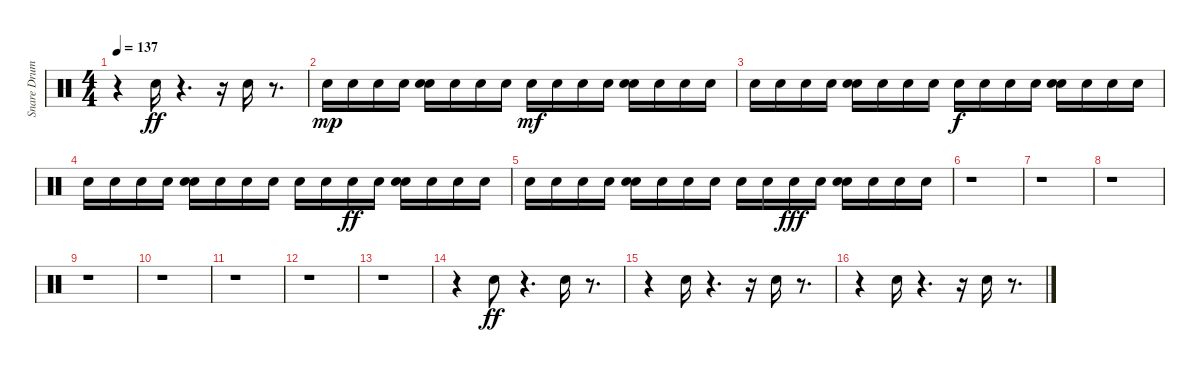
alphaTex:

\track ("Snare Drum" "Snare Drum") {instrument percussion}
\staff {score}
\articulation defaults
\ts (4 4)
\tempo 137
\clef neutral
\ks c
r.4{dy ff} "Electric Snare (hit)".16 r.4{d} r.16 "Electric Snare (hit)".16 r.8{d} |
"Electric Snare (hit)".16{dy mp} "Electric Snare (hit)".16 "Electric Snare (hit)".16 "Electric Snare (hit)".16 ("Electric Snare (hit)" "Electric Snare (hit)").16 "Electric Snare (hit)".16 "Electric Snare (hit)".16 "Electric Snare (hit)".16 "Electric Snare (hit)".16{dy mf} "Electric Snare (hit)".16 "Electric Snare (hit)".16 "Electric Snare (hit)".16 ("Electric Snare (hit)" "Electric Snare (hit)").16 "Electric Snare (hit)".16 "Electric Snare (hit)".16 "Electric Snare (hit)".16 |
"Electric Snare (hit)".16 "Electric Snare (hit)".16 "Electric Snare (hit)".16 "Electric Snare (hit)".16 ("Electric Snare (hit)" "Electric Snare (hit)").16 "Electric Snare (hit)".16 "Electric Snare (hit)".16 "Electric Snare (hit)".16 "Electric Snare (hit)".16{dy f} "Electric Snare (hit)".16 "Electric Snare (hit)".16 "Electric Snare (hit)".16 ("Electric Snare (hit)" "Electric Snare (hit)").16 "Electric Snare (hit)".16 "Electric Snare (hit)".16 "Electric Snare (hit)".16 |
"Electric Snare (hit)".16 "Electric Snare (hit)".16 "Electric Snare (hit)".16 "Electric Snare (hit)".16 ("Electric Snare (hit)" "Electric Snare (hit)").16 "Electric Snare (hit)".16 "Electric Snare (hit)".16 "Electric Snare (hit)".16 "Electric Snare (hit)".16 "Electric Snare (hit)".16 "Electric Snare (hit)".16{dy ff} "Electric Snare (hit)".16 ("Electric Snare (hit)" "Electric Snare (hit)").16 "Electric Snare (hit)".16 "Electric Snare (hit)".16 "Electric Snare (hit)".16 |
"Electric Snare (hit)".16 "Electric Snare (hit)".16 "Electric Snare (hit)".16 "Electric Snare (hit)".16 ("Electric Snare (hit)" "Electric Snare (hit)").16 "Electric Snare (hit)".16 "Electric Snare (hit)".16 "Electric Snare (hit)".16 "Electric Snare (hit)".16 "Electric Snare (hit)".16 "Electric Snare (hit)".16{dy fff} "Electric Snare (hit)".16 ("Electric Snare (hit)" "Electric Snare (hit)").16 "Electric Snare (hit)".16 "Electric Snare (hit)".16 "Electric Snare (hit)".16 |
r.1 |
r.1 |
r.1 |
r.1 |
r.1 |
r.1 |
r.1 |
r.1 |
r.4 "Electric Snare (hit)".8{dy ff} r.4{d} "Electric Snare (hit)".16 r.8{d} |
r.4 "Electric Snare (hit)".16 r.4{d} r.16 "Electric Snare (hit)".16 r.8{d} |
r.4 "Electric Snare (hit)".16 r.4{d} r.16 "Electric Snare (hit)".16 r.8{d}
